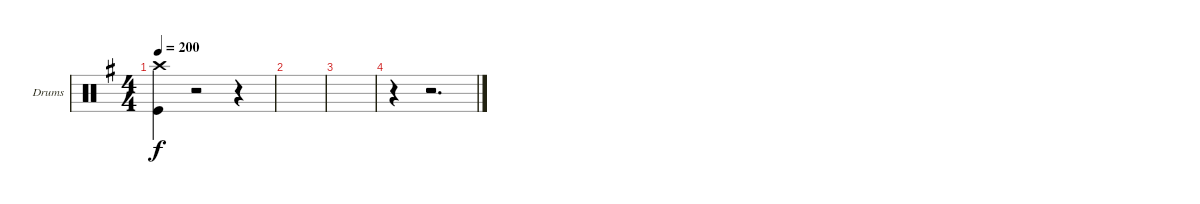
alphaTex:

\bracketExtendMode groupsimilarinstruments
\firstSystemTrackNameOrientation horizontal
\otherSystemsTrackNameOrientation horizontal
\track ("Drumkit" "Drums") {instrument percussion}
\staff {score}
\articulation defaults
\ts (4 4)
\tempo 200
\clef neutral
\ks g
("Kick (hit)" "Crash high (hit)").4{dy f} r.2 r.4 |
|
|
r.4 r.2{d}
